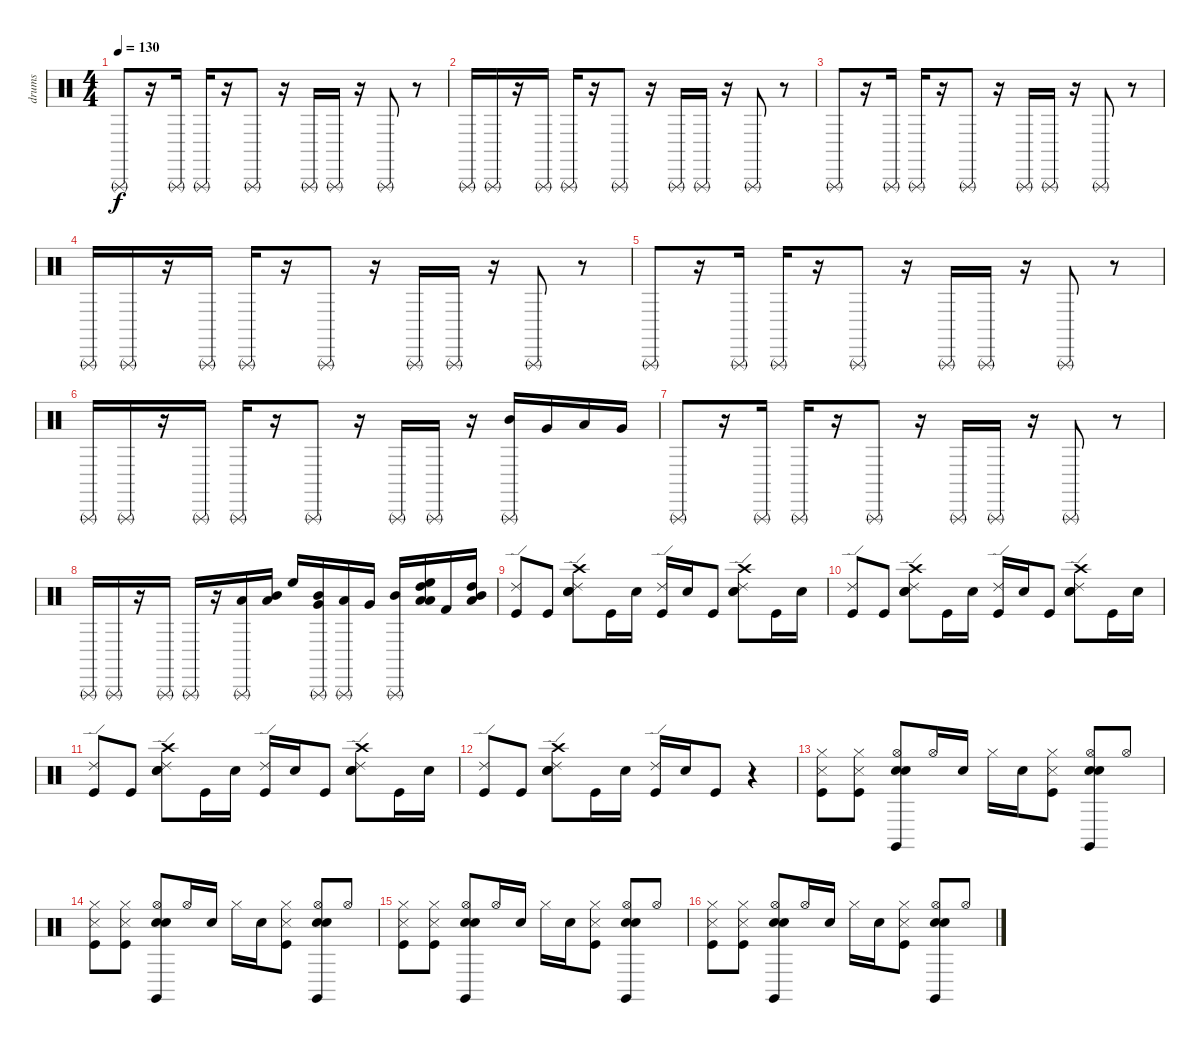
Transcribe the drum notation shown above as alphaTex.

\track ("drums" "drums") {instrument percussion}
\staff {score}
\articulation defaults
\ts (4 4)
\tempo 130
\clef neutral
\ks c "Triangle (rnute)".8{dy f}
r.16 "Triangle (rnute)".16 "Triangle (rnute)".16 r.16 "Triangle (rnute)".8 r.16 "Triangle (rnute)".16 "Triangle (rnute)".16 r.16 "Triangle (rnute)".8 r.8 |
"Triangle (rnute)".16 "Triangle (rnute)".16 r.16 "Triangle (rnute)".16 "Triangle (rnute)".16 r.16 "Triangle (rnute)".8 r.16 "Triangle (rnute)".16 "Triangle (rnute)".16 r.16 "Triangle (rnute)".8 r.8 |
"Triangle (rnute)".8 r.16 "Triangle (rnute)".16 "Triangle (rnute)".16 r.16 "Triangle (rnute)".8 r.16 "Triangle (rnute)".16 "Triangle (rnute)".16 r.16 "Triangle (rnute)".8 r.8 |
"Triangle (rnute)".16 "Triangle (rnute)".16 r.16 "Triangle (rnute)".16 "Triangle (rnute)".16 r.16 "Triangle (rnute)".8 r.16 "Triangle (rnute)".16 "Triangle (rnute)".16 r.16 "Triangle (rnute)".8 r.8 |
"Triangle (rnute)".8 r.16 "Triangle (rnute)".16 "Triangle (rnute)".16 r.16 "Triangle (rnute)".8 r.16 "Triangle (rnute)".16 "Triangle (rnute)".16 r.16 "Triangle (rnute)".8 r.8 |
"Triangle (rnute)".16 "Triangle (rnute)".16 r.16 "Triangle (rnute)".16 "Triangle (rnute)".16 r.16 "Triangle (rnute)".8 r.16 "Triangle (rnute)".16 "Triangle (rnute)".16 r.16 ("Triangle (rnute)" "Mid Tom (hit)").16 "Very Low Tom (hit)".16 "Low Floor Tom (hit)".16 "Very Low Tom (hit)".16 |
"Triangle (rnute)".8 r.16 "Triangle (rnute)".16 "Triangle (rnute)".16 r.16 "Triangle (rnute)".8 r.16 "Triangle (rnute)".16 "Triangle (rnute)".16 r.16 "Triangle (rnute)".8 r.8 |
"Triangle (rnute)".16 "Triangle (rnute)".16 r.16 "Triangle (rnute)".16 "Triangle (rnute)".16 r.16 ("Triangle (rnute)" "Low Tom (hit)").16 ("Mid Tom (hit)" "Low Tom (hit)").16 "High Floor Tom (hit)".16 ("Triangle (rnute)" "Very Low Tom (hit)" "Mid Tom (hit)").16 ("Triangle (rnute)" "Low Floor Tom (hit)").16 "Very Low Tom (hit)".16 ("Triangle (rnute)" "Mid Tom (hit)").16 ("Low Floor Tom (hit)" "High Tom (hit)" "High Floor Tom (hit)" "Low Tom (hit)").16 "Kick (hit) 2".16 ("Low Floor Tom (hit)" "Mid Tom (hit)" "High Tom (hit)").16 |
("Ride (edge) 2" "Kick (hit)").8 "Kick (hit)".8 ("Electric Snare (hit)" "Snare (hit) 2" "Crash high (hit)" "Ride (edge) 2").8 "Kick (hit)".16 "Snare (hit) 2".16 ("Kick (hit)" "Ride (edge) 2").16 "Snare (hit) 2".16 "Kick (hit)".8 ("Snare (hit) 2" "Electric Snare (hit)" "Crash high (hit)" "Ride (edge) 2").8 "Kick (hit)".16 "Snare (hit) 2".16 |
("Ride (edge) 2" "Kick (hit)").8 "Kick (hit)".8 ("Electric Snare (hit)" "Snare (hit) 2" "Crash high (hit)" "Ride (edge) 2").8 "Kick (hit)".16 "Snare (hit) 2".16 ("Kick (hit)" "Ride (edge) 2").16 "Snare (hit) 2".16 "Kick (hit)".8 ("Snare (hit) 2" "Electric Snare (hit)" "Crash high (hit)" "Ride (edge) 2").8 "Kick (hit)".16 "Snare (hit) 2".16 |
("Ride (edge) 2" "Kick (hit)").8 "Kick (hit)".8 ("Electric Snare (hit)" "Snare (hit) 2" "Crash high (hit)" "Ride (edge) 2").8 "Kick (hit)".16 "Snare (hit) 2".16 ("Kick (hit)" "Ride (edge) 2").16 "Snare (hit) 2".16 "Kick (hit)".8 ("Snare (hit) 2" "Electric Snare (hit)" "Crash high (hit)" "Ride (edge) 2").8 "Kick (hit)".16 "Snare (hit) 2".16 |
("Ride (edge) 2" "Kick (hit)").8 "Kick (hit)".8 ("Electric Snare (hit)" "Snare (hit) 2" "Crash high (hit)" "Ride (edge) 2").8 "Kick (hit)".16 "Snare (hit) 2".16 ("Kick (hit)" "Ride (edge) 2").16 "Snare (hit) 2".16 "Kick (hit)".8 r.4 |
("Metronome (hit)" "Kick (hit)" "Hi-Hat (closed)").8 ("Hi-Hat (closed)" "Kick (hit)" "Metronome (hit)").8 ("Hi-Hat (open)" "Electric Snare (hit)" "Snare (hit) 2" "Claves (hit)").8 "Hi-Hat (open)".16 "Snare (hit) 2".16 "Hi-Hat (closed)".16 "Snare (hit) 2".16 ("Hi-Hat (closed)" "Metronome (hit)" "Kick (hit)").8 ("Hi-Hat (open)" "Snare (hit) 2" "Electric Snare (hit)" "Claves (hit)").8 "Hi-Hat (open)".8 |
("Metronome (hit)" "Kick (hit)" "Hi-Hat (closed)").8 ("Hi-Hat (closed)" "Kick (hit)" "Metronome (hit)").8 ("Hi-Hat (open)" "Electric Snare (hit)" "Snare (hit) 2" "Claves (hit)").8 "Hi-Hat (open)".16 "Snare (hit) 2".16 "Hi-Hat (closed)".16 "Snare (hit) 2".16 ("Hi-Hat (closed)" "Metronome (hit)" "Kick (hit)").8 ("Hi-Hat (open)" "Snare (hit) 2" "Electric Snare (hit)" "Claves (hit)").8 "Hi-Hat (open)".8 |
("Metronome (hit)" "Kick (hit)" "Hi-Hat (closed)").8 ("Hi-Hat (closed)" "Kick (hit)" "Metronome (hit)").8 ("Hi-Hat (open)" "Electric Snare (hit)" "Snare (hit) 2" "Claves (hit)").8 "Hi-Hat (open)".16 "Snare (hit) 2".16 "Hi-Hat (closed)".16 "Snare (hit) 2".16 ("Hi-Hat (closed)" "Metronome (hit)" "Kick (hit)").8 ("Hi-Hat (open)" "Snare (hit) 2" "Electric Snare (hit)" "Claves (hit)").8 "Hi-Hat (open)".8 |
("Metronome (hit)" "Kick (hit)" "Hi-Hat (closed)").8 ("Hi-Hat (closed)" "Kick (hit)" "Metronome (hit)").8 ("Hi-Hat (open)" "Electric Snare (hit)" "Snare (hit) 2" "Claves (hit)").8 "Hi-Hat (open)".16 "Snare (hit) 2".16 "Hi-Hat (closed)".16 "Snare (hit) 2".16 ("Hi-Hat (closed)" "Metronome (hit)" "Kick (hit)").8 ("Hi-Hat (open)" "Snare (hit) 2" "Electric Snare (hit)" "Claves (hit)").8 "Hi-Hat (open)".8
